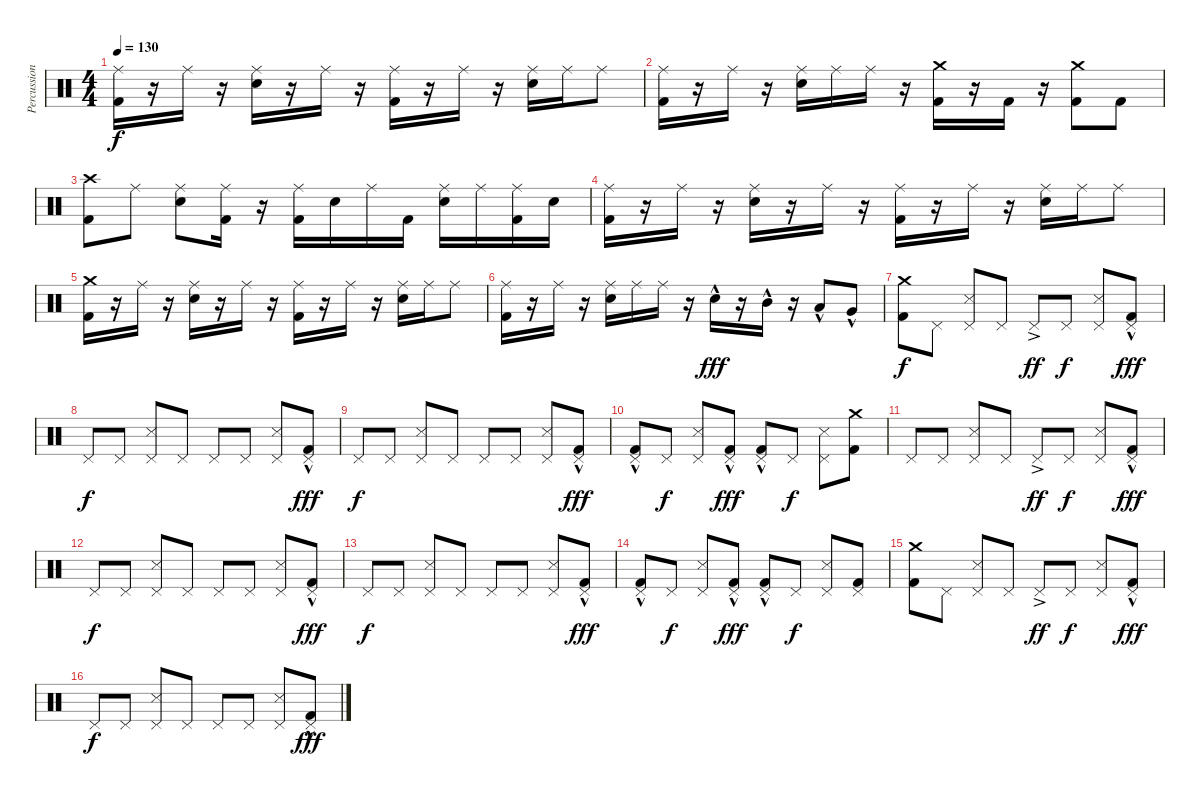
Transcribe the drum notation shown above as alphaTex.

\track ("Percussion" "Percussion") {instrument percussion}
\staff {score}
\articulation defaults
\ts (4 4)
\tempo 130
\clef neutral
\ks c
("Kick (hit) 2" "Ride (middle)").16{dy f} r.16 "Ride (middle)".16 r.16 ("Snare (hit) 2" "Ride (middle)").16 r.16 "Ride (middle)".16 r.16 ("Kick (hit) 2" "Ride (middle)").16 r.16 "Ride (middle)".16 r.16 ("Snare (hit) 2" "Ride (middle)").16 "Ride (middle)".16 "Ride (middle)".8 |
("Kick (hit) 2" "Ride (middle)").16 r.16 "Ride (middle)".16 r.16 ("Snare (hit) 2" "Ride (middle)").16 "Ride (middle)".16 "Ride (middle)".16 r.16 ("Kick (hit) 2" "Crash medium (hit)").16 r.16 "Kick (hit) 2".16 r.16 ("Kick (hit) 2" "Crash medium (hit)").8 "Kick (hit) 2".8 |
("Kick (hit) 2" "Crash high (hit)").8 "Ride (middle)".8 ("Snare (hit) 2" "Ride (middle)").8 ("Kick (hit) 2" "Ride (middle)").16 r.16 ("Kick (hit) 2" "Ride (middle)").16 "Snare (hit) 2".16 "Ride (middle)".16 "Kick (hit) 2".16 ("Snare (hit) 2" "Ride (middle)").16 "Ride (middle)".16 ("Kick (hit) 2" "Ride (middle)").16 "Snare (hit) 2".16 |
("Kick (hit) 2" "Ride (middle)").16 r.16 "Ride (middle)".16 r.16 ("Snare (hit) 2" "Ride (middle)").16 r.16 "Ride (middle)".16 r.16 ("Kick (hit) 2" "Ride (middle)").16 r.16 "Ride (middle)".16 r.16 ("Snare (hit) 2" "Ride (middle)").16 "Ride (middle)".16 "Ride (middle)".8 |
("Kick (hit) 2" "Crash medium (hit)").16 r.16 "Ride (middle)".16 r.16 ("Snare (hit) 2" "Ride (middle)").16 r.16 "Ride (middle)".16 r.16 ("Kick (hit) 2" "Ride (middle)").16 r.16 "Ride (middle)".16 r.16 ("Snare (hit) 2" "Ride (middle)").16 "Ride (middle)".16 "Ride (middle)".8 |
("Kick (hit) 2" "Ride (middle)").16 r.16 "Ride (middle)".16 r.16 ("Snare (hit) 2" "Ride (middle)").16 "Ride (middle)".16 "Ride (middle)".16 r.16 "Snare (hit) 2"{hac}.16{dy fff} r.16 "Mid Tom (hit)"{hac}.16 r.16 "Low Tom (hit)"{hac}.8 "Very Low Tom (hit)"{hac}.8 |
("Kick (hit) 2" "Crash medium (hit)").8{dy f} "Pedal Hi-Hat (hit)".8 ("Snare (side stick) 3" "Pedal Hi-Hat (hit)").8 "Pedal Hi-Hat (hit)".8 "Pedal Hi-Hat (hit)"{ac}.8{dy ff} "Pedal Hi-Hat (hit)".8{dy f} ("Snare (side stick) 3" "Pedal Hi-Hat (hit)").8 ("Kick (hit) 2"{hac} "Pedal Hi-Hat (hit)").8{dy fff} |
"Pedal Hi-Hat (hit)".8{dy f} "Pedal Hi-Hat (hit)".8 ("Snare (side stick) 3" "Pedal Hi-Hat (hit)").8 "Pedal Hi-Hat (hit)".8 "Pedal Hi-Hat (hit)".8 "Pedal Hi-Hat (hit)".8 ("Snare (side stick) 3" "Pedal Hi-Hat (hit)").8 ("Kick (hit) 2"{hac} "Pedal Hi-Hat (hit)").8{dy fff} |
"Pedal Hi-Hat (hit)".8{dy f} "Pedal Hi-Hat (hit)".8 ("Snare (side stick) 3" "Pedal Hi-Hat (hit)").8 "Pedal Hi-Hat (hit)".8 "Pedal Hi-Hat (hit)".8 "Pedal Hi-Hat (hit)".8 ("Snare (side stick) 3" "Pedal Hi-Hat (hit)").8 ("Kick (hit) 2"{hac} "Pedal Hi-Hat (hit)").8{dy fff} |
("Kick (hit) 2"{hac} "Pedal Hi-Hat (hit)").8 "Pedal Hi-Hat (hit)".8{dy f} ("Snare (side stick) 3" "Pedal Hi-Hat (hit)").8 ("Kick (hit) 2"{hac} "Pedal Hi-Hat (hit)").8{dy fff} ("Kick (hit) 2"{hac} "Pedal Hi-Hat (hit)").8 "Pedal Hi-Hat (hit)".8{dy f} ("Snare (side stick) 3" "Pedal Hi-Hat (hit)").8 ("Kick (hit) 2" "Crash medium (hit)").8 |
"Pedal Hi-Hat (hit)".8 "Pedal Hi-Hat (hit)".8 ("Snare (side stick) 3" "Pedal Hi-Hat (hit)").8 "Pedal Hi-Hat (hit)".8 "Pedal Hi-Hat (hit)"{ac}.8{dy ff} "Pedal Hi-Hat (hit)".8{dy f} ("Snare (side stick) 3" "Pedal Hi-Hat (hit)").8 ("Kick (hit) 2"{hac} "Pedal Hi-Hat (hit)").8{dy fff} |
"Pedal Hi-Hat (hit)".8{dy f} "Pedal Hi-Hat (hit)".8 ("Snare (side stick) 3" "Pedal Hi-Hat (hit)").8 "Pedal Hi-Hat (hit)".8 "Pedal Hi-Hat (hit)".8 "Pedal Hi-Hat (hit)".8 ("Snare (side stick) 3" "Pedal Hi-Hat (hit)").8 ("Kick (hit) 2"{hac} "Pedal Hi-Hat (hit)").8{dy fff} |
"Pedal Hi-Hat (hit)".8{dy f} "Pedal Hi-Hat (hit)".8 ("Snare (side stick) 3" "Pedal Hi-Hat (hit)").8 "Pedal Hi-Hat (hit)".8 "Pedal Hi-Hat (hit)".8 "Pedal Hi-Hat (hit)".8 ("Snare (side stick) 3" "Pedal Hi-Hat (hit)").8 ("Kick (hit) 2"{hac} "Pedal Hi-Hat (hit)").8{dy fff} |
("Kick (hit) 2"{hac} "Pedal Hi-Hat (hit)").8 "Pedal Hi-Hat (hit)".8{dy f} ("Snare (side stick) 3" "Pedal Hi-Hat (hit)").8 ("Kick (hit) 2"{hac} "Pedal Hi-Hat (hit)").8{dy fff} ("Kick (hit) 2"{hac} "Pedal Hi-Hat (hit)").8 "Pedal Hi-Hat (hit)".8{dy f} ("Snare (side stick) 3" "Pedal Hi-Hat (hit)").8 ("Kick (hit) 2" "Pedal Hi-Hat (hit)").8 |
("Kick (hit) 2" "Crash medium (hit)").8 "Pedal Hi-Hat (hit)".8 ("Snare (side stick) 3" "Pedal Hi-Hat (hit)").8 "Pedal Hi-Hat (hit)".8 "Pedal Hi-Hat (hit)"{ac}.8{dy ff} "Pedal Hi-Hat (hit)".8{dy f} ("Snare (side stick) 3" "Pedal Hi-Hat (hit)").8 ("Kick (hit) 2"{hac} "Pedal Hi-Hat (hit)").8{dy fff} |
"Pedal Hi-Hat (hit)".8{dy f} "Pedal Hi-Hat (hit)".8 ("Snare (side stick) 3" "Pedal Hi-Hat (hit)").8 "Pedal Hi-Hat (hit)".8 "Pedal Hi-Hat (hit)".8 "Pedal Hi-Hat (hit)".8 ("Snare (side stick) 3" "Pedal Hi-Hat (hit)").8 ("Kick (hit) 2"{hac} "Pedal Hi-Hat (hit)").8{dy fff}
